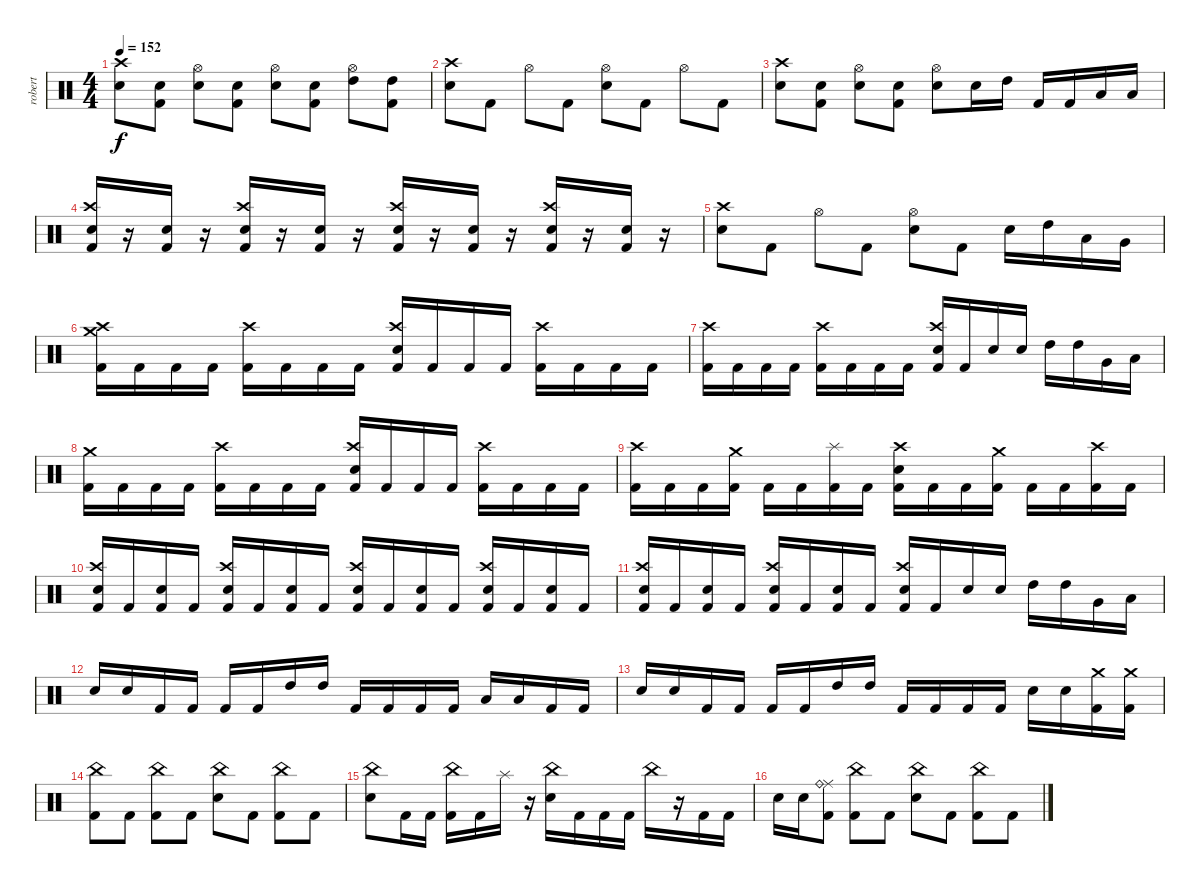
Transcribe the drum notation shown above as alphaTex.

\track ("robert" "robert") {instrument percussion}
\staff {score}
\articulation defaults
\ts (4 4)
\tempo 152
\clef neutral
\ks c
("Electric Snare (hit)" "Crash high (hit)").8{dy f} ("Kick (hit) 2" "Electric Snare (hit)").8 ("Hi-Hat (open)" "Electric Snare (hit)").8 ("Kick (hit) 2" "Electric Snare (hit)").8 ("Hi-Hat (open)" "Electric Snare (hit)").8 ("Kick (hit) 2" "Electric Snare (hit)").8 ("Hi-Hat (open)" "High Tom (hit)").8 ("Kick (hit) 2" "High Tom (hit)").8 |
("Electric Snare (hit)" "Crash high (hit)").8 "Kick (hit) 2".8 "Hi-Hat (open)".8 "Kick (hit) 2".8 ("Hi-Hat (open)" "Electric Snare (hit)").8 "Kick (hit) 2".8 "Hi-Hat (open)".8 "Kick (hit) 2".8 |
("Electric Snare (hit)" "Crash high (hit)").8 ("Kick (hit) 2" "Electric Snare (hit)").8 ("Hi-Hat (open)" "Electric Snare (hit)").8 ("Kick (hit) 2" "Electric Snare (hit)").8 ("Hi-Hat (open)" "Electric Snare (hit)").8 "Electric Snare (hit)".16 "High Tom (hit)".16 "Kick (hit) 2".16 "Kick (hit) 2".16 "Low Floor Tom (hit)".16 "Low Floor Tom (hit)".16 |
("Crash high (hit)" "Electric Snare (hit)" "Kick (hit) 2").16 r.16 ("Electric Snare (hit)" "Kick (hit) 2").16 r.16 ("Crash high (hit)" "Electric Snare (hit)" "Kick (hit) 2").16 r.16 ("Electric Snare (hit)" "Kick (hit) 2").16 r.16 ("Electric Snare (hit)" "Crash high (hit)" "Kick (hit) 2").16 r.16 ("Electric Snare (hit)" "Kick (hit) 2").16 r.16 ("Crash high (hit)" "Electric Snare (hit)" "Kick (hit) 2").16 r.16 ("Electric Snare (hit)" "Kick (hit) 2").16 r.16 |
("Electric Snare (hit)" "Crash high (hit)").8 "Kick (hit) 2".8 "Hi-Hat (open)".8 "Kick (hit) 2".8 ("Hi-Hat (open)" "Electric Snare (hit)").8 "Kick (hit) 2".8 "Electric Snare (hit)".16 "High Tom (hit)".16 "Low Tom (hit)".16 "Very Low Tom (hit)".16 |
("Crash high (hit)" "Crash medium (hit)" "Kick (hit) 2").16 "Kick (hit) 2".16 "Kick (hit) 2".16 "Kick (hit) 2".16 ("Crash high (hit)" "Kick (hit) 2").16 "Kick (hit) 2".16 "Kick (hit) 2".16 "Kick (hit) 2".16 ("Electric Snare (hit)" "Crash high (hit)" "Kick (hit) 2").16 "Kick (hit) 2".16 "Kick (hit) 2".16 "Kick (hit) 2".16 ("Crash high (hit)" "Kick (hit) 2").16 "Kick (hit) 2".16 "Kick (hit) 2".16 "Kick (hit) 2".16 |
("Crash high (hit)" "Kick (hit) 2").16 "Kick (hit) 2".16 "Kick (hit) 2".16 "Kick (hit) 2".16 ("Crash high (hit)" "Kick (hit) 2").16 "Kick (hit) 2".16 "Kick (hit) 2".16 "Kick (hit) 2".16 ("Electric Snare (hit)" "Crash high (hit)" "Kick (hit) 2").16 "Kick (hit) 2".16 "Electric Snare (hit)".16 "Electric Snare (hit)".16 "High Tom (hit)".16 "High Tom (hit)".16 "Very Low Tom (hit)".16 "Low Floor Tom (hit)".16 |
("Crash medium (hit)" "Kick (hit) 2").16 "Kick (hit) 2".16 "Kick (hit) 2".16 "Kick (hit) 2".16 ("Crash high (hit)" "Kick (hit) 2").16 "Kick (hit) 2".16 "Kick (hit) 2".16 "Kick (hit) 2".16 ("Electric Snare (hit)" "Crash high (hit)" "Kick (hit) 2").16 "Kick (hit) 2".16 "Kick (hit) 2".16 "Kick (hit) 2".16 ("Crash high (hit)" "Kick (hit) 2").16 "Kick (hit) 2".16 "Kick (hit) 2".16 "Kick (hit) 2".16 |
("Crash high (hit)" "Kick (hit) 2").16 "Kick (hit) 2".16 "Kick (hit) 2".16 ("Crash medium (hit)" "Kick (hit) 2").16 "Kick (hit) 2".16 "Kick (hit) 2".16 ("Splash (hit)" "Kick (hit) 2").16 "Kick (hit) 2".16 ("Electric Snare (hit)" "Crash high (hit)" "Kick (hit) 2").16 "Kick (hit) 2".16 "Kick (hit) 2".16 ("Crash medium (hit)" "Kick (hit) 2").16 "Kick (hit) 2".16 "Kick (hit) 2".16 ("Crash high (hit)" "Kick (hit) 2").16 "Kick (hit) 2".16 |
("Crash high (hit)" "Electric Snare (hit)" "Kick (hit) 2").16 "Kick (hit) 2".16 ("Electric Snare (hit)" "Kick (hit) 2").16 "Kick (hit) 2".16 ("Crash high (hit)" "Electric Snare (hit)" "Kick (hit) 2").16 "Kick (hit) 2".16 ("Electric Snare (hit)" "Kick (hit) 2").16 "Kick (hit) 2".16 ("Electric Snare (hit)" "Crash high (hit)" "Kick (hit) 2").16 "Kick (hit) 2".16 ("Electric Snare (hit)" "Kick (hit) 2").16 "Kick (hit) 2".16 ("Crash high (hit)" "Electric Snare (hit)" "Kick (hit) 2").16 "Kick (hit) 2".16 ("Electric Snare (hit)" "Kick (hit) 2").16 "Kick (hit) 2".16 |
("Crash high (hit)" "Electric Snare (hit)" "Kick (hit) 2").16 "Kick (hit) 2".16 ("Electric Snare (hit)" "Kick (hit) 2").16 "Kick (hit) 2".16 ("Crash high (hit)" "Electric Snare (hit)" "Kick (hit) 2").16 "Kick (hit) 2".16 ("Electric Snare (hit)" "Kick (hit) 2").16 "Kick (hit) 2".16 ("Electric Snare (hit)" "Crash high (hit)" "Kick (hit) 2").16 "Kick (hit) 2".16 "Electric Snare (hit)".16 "Electric Snare (hit)".16 "High Tom (hit)".16 "High Tom (hit)".16 "Very Low Tom (hit)".16 "Low Floor Tom (hit)".16 |
"Electric Snare (hit)".16 "Electric Snare (hit)".16 "Kick (hit) 2".16 "Kick (hit) 2".16 "Kick (hit) 2".16 "Kick (hit) 2".16 "High Tom (hit)".16 "High Tom (hit)".16 "Kick (hit) 2".16 "Kick (hit) 2".16 "Kick (hit) 2".16 "Kick (hit) 2".16 "Low Tom (hit)".16 "Low Tom (hit)".16 "Kick (hit) 2".16 "Kick (hit) 2".16 |
"Electric Snare (hit)".16 "Electric Snare (hit)".16 "Kick (hit) 2".16 "Kick (hit) 2".16 "Kick (hit) 2".16 "Kick (hit) 2".16 "High Tom (hit)".16 "High Tom (hit)".16 "Kick (hit) 2".16 "Kick (hit) 2".16 "Kick (hit) 2".16 "Kick (hit) 2".16 "Electric Snare (hit)".16 "Electric Snare (hit)".16 ("Crash medium (hit)" "Kick (hit) 2").16 ("Crash medium (hit)" "Kick (hit) 2").16 |
("China (hit)" "Kick (hit) 2").8 "Kick (hit) 2".8 ("Kick (hit) 2" "China (hit)").8 "Kick (hit) 2".8 ("China (hit)" "Electric Snare (hit)").8 "Kick (hit) 2".8 ("China (hit)" "Kick (hit) 2").8 "Kick (hit) 2".8 |
("China (hit)" "Electric Snare (hit)").8 "Kick (hit) 2".16 "Kick (hit) 2".16 ("China (hit)" "Kick (hit) 2").16 "Kick (hit) 2".16 "Splash (hit)".16 r.16 ("China (hit)" "Electric Snare (hit)").16 "Kick (hit) 2".16 "Kick (hit) 2".16 "Kick (hit) 2".16 "China (hit)".16 r.16 "Kick (hit) 2".16 "Kick (hit) 2".16 |
"Electric Snare (hit)".16 "Electric Snare (hit)".16 ("Ride (middle)" "Ride (bell)" "Kick (hit) 2").8 ("Kick (hit) 2" "China (hit)").8 "Kick (hit) 2".8 ("China (hit)" "Electric Snare (hit)").8 "Kick (hit) 2".8 ("China (hit)" "Kick (hit) 2").8 "Kick (hit) 2".8
